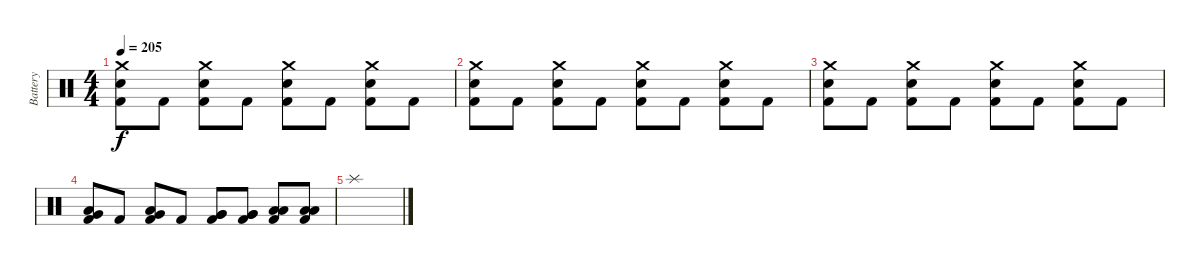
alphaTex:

\track ("Battery" "Battery") {instrument percussion}
\staff {score}
\articulation defaults
\ts (4 4)
\tempo 205
\clef neutral
\ks c
("Crash medium (hit)" "Electric Snare (hit)" "Kick (hit) 2").8{dy f} "Kick (hit) 2".8 ("Crash medium (hit)" "Electric Snare (hit)" "Kick (hit) 2").8 "Kick (hit) 2".8 ("Crash medium (hit)" "Electric Snare (hit)" "Kick (hit) 2").8 "Kick (hit) 2".8 ("Crash medium (hit)" "Electric Snare (hit)" "Kick (hit) 2").8 "Kick (hit) 2".8 |
("Crash medium (hit)" "Electric Snare (hit)" "Kick (hit) 2").8 "Kick (hit) 2".8 ("Crash medium (hit)" "Electric Snare (hit)" "Kick (hit) 2").8 "Kick (hit) 2".8 ("Crash medium (hit)" "Electric Snare (hit)" "Kick (hit) 2").8 "Kick (hit) 2".8 ("Crash medium (hit)" "Electric Snare (hit)" "Kick (hit) 2").8 "Kick (hit) 2".8 |
("Crash medium (hit)" "Electric Snare (hit)" "Kick (hit) 2").8 "Kick (hit) 2".8 ("Crash medium (hit)" "Electric Snare (hit)" "Kick (hit) 2").8 "Kick (hit) 2".8 ("Crash medium (hit)" "Electric Snare (hit)" "Kick (hit) 2").8 "Kick (hit) 2".8 ("Crash medium (hit)" "Electric Snare (hit)" "Kick (hit) 2").8 "Kick (hit) 2".8 |
("Low Tom (hit)" "Very Low Tom (hit)" "Kick (hit) 2").8 "Kick (hit) 2".8 ("Low Tom (hit)" "Very Low Tom (hit)" "Kick (hit) 2").8 "Kick (hit) 2".8 ("Very Low Tom (hit)" "Very Low Tom (hit)" "Kick (hit) 2").8 ("Very Low Tom (hit)" "Very Low Tom (hit)" "Kick (hit) 2").8 ("Low Floor Tom (hit)" "Low Floor Tom (hit)" "Kick (hit) 2").8 ("Low Floor Tom (hit)" "Low Floor Tom (hit)" "Kick (hit) 2").8 |
"Splash (hit)".1
